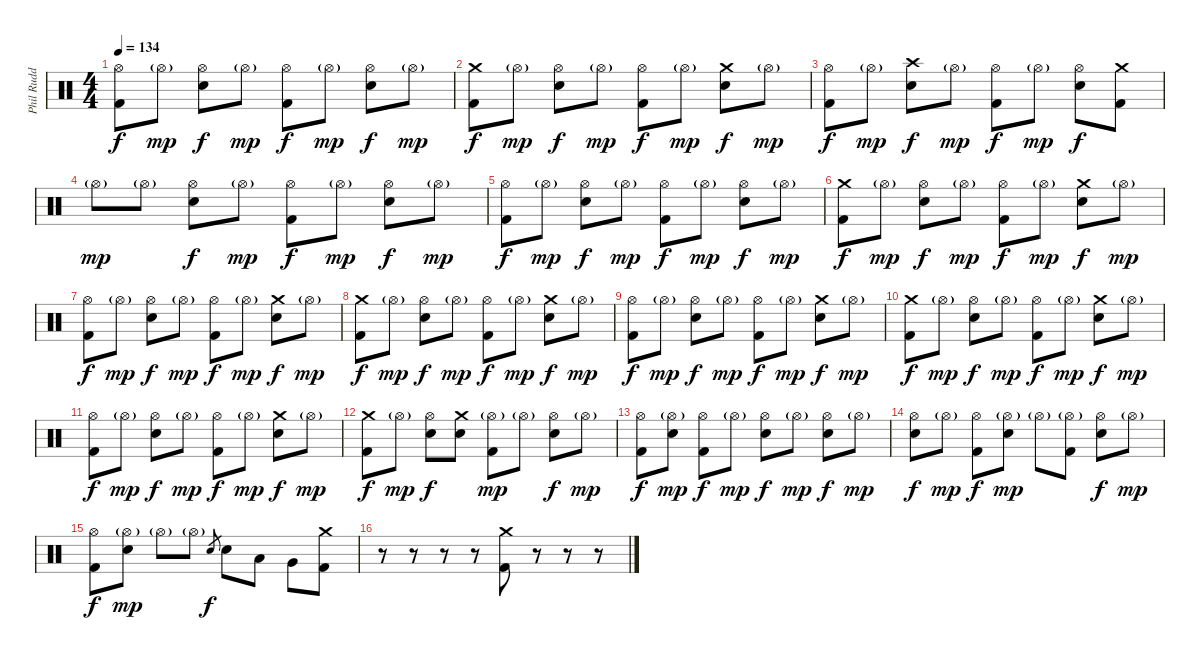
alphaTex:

\track ("Phil Rudd" "Phil Rudd") {instrument percussion}
\staff {score}
\articulation defaults
\ts (4 4)
\tempo 134
\clef neutral
\ks c
("Hi-Hat (open)" "Kick (hit) 2").8{dy f} "Hi-Hat (open)"{g}.8{dy mp} ("Hi-Hat (open)" "Snare (hit) 2").8{dy f} "Hi-Hat (open)"{g}.8{dy mp} ("Hi-Hat (open)" "Kick (hit) 2").8{dy f} "Hi-Hat (open)"{g}.8{dy mp} ("Hi-Hat (open)" "Snare (hit) 2").8{dy f} "Hi-Hat (open)"{g}.8{dy mp} |
("Crash medium (hit)" "Kick (hit) 2").8{dy f} "Hi-Hat (open)"{g}.8{dy mp} ("Hi-Hat (open)" "Snare (hit) 2").8{dy f} "Hi-Hat (open)"{g}.8{dy mp} ("Hi-Hat (open)" "Kick (hit) 2").8{dy f} "Hi-Hat (open)"{g}.8{dy mp} ("Crash medium (hit)" "Snare (hit) 2").8{dy f} "Hi-Hat (open)"{g}.8{dy mp} |
("Hi-Hat (open)" "Kick (hit) 2").8{dy f} "Hi-Hat (open)"{g}.8{dy mp} ("Crash high (hit)" "Snare (hit) 2").8{dy f} "Hi-Hat (open)"{g}.8{dy mp} ("Hi-Hat (open)" "Kick (hit) 2").8{dy f} "Hi-Hat (open)"{g}.8{dy mp} ("Hi-Hat (open)" "Snare (hit) 2").8{dy f} ("Crash medium (hit)" "Kick (hit) 2").8 |
"Hi-Hat (open)"{g}.8{dy mp} "Hi-Hat (open)"{g}.8 ("Hi-Hat (open)" "Snare (hit) 2").8{dy f} "Hi-Hat (open)"{g}.8{dy mp} ("Hi-Hat (open)" "Kick (hit) 2").8{dy f} "Hi-Hat (open)"{g}.8{dy mp} ("Hi-Hat (open)" "Snare (hit) 2").8{dy f} "Hi-Hat (open)"{g}.8{dy mp} |
("Hi-Hat (open)" "Kick (hit) 2").8{dy f} "Hi-Hat (open)"{g}.8{dy mp} ("Hi-Hat (open)" "Snare (hit) 2").8{dy f} "Hi-Hat (open)"{g}.8{dy mp} ("Hi-Hat (open)" "Kick (hit) 2").8{dy f} "Hi-Hat (open)"{g}.8{dy mp} ("Hi-Hat (open)" "Snare (hit) 2").8{dy f} "Hi-Hat (open)"{g}.8{dy mp} |
("Crash medium (hit)" "Kick (hit) 2").8{dy f} "Hi-Hat (open)"{g}.8{dy mp} ("Hi-Hat (open)" "Snare (hit) 2").8{dy f} "Hi-Hat (open)"{g}.8{dy mp} ("Hi-Hat (open)" "Kick (hit) 2").8{dy f} "Hi-Hat (open)"{g}.8{dy mp} ("Crash medium (hit)" "Snare (hit) 2").8{dy f} "Hi-Hat (open)"{g}.8{dy mp} |
("Hi-Hat (open)" "Kick (hit) 2").8{dy f} "Hi-Hat (open)"{g}.8{dy mp} ("Hi-Hat (open)" "Snare (hit) 2").8{dy f} "Hi-Hat (open)"{g}.8{dy mp} ("Hi-Hat (open)" "Kick (hit) 2").8{dy f} "Hi-Hat (open)"{g}.8{dy mp} ("Crash medium (hit)" "Snare (hit) 2").8{dy f} "Hi-Hat (open)"{g}.8{dy mp} |
("Crash medium (hit)" "Kick (hit) 2").8{dy f} "Hi-Hat (open)"{g}.8{dy mp} ("Hi-Hat (open)" "Snare (hit) 2").8{dy f} "Hi-Hat (open)"{g}.8{dy mp} ("Hi-Hat (open)" "Kick (hit) 2").8{dy f} "Hi-Hat (open)"{g}.8{dy mp} ("Crash medium (hit)" "Snare (hit) 2").8{dy f} "Hi-Hat (open)"{g}.8{dy mp} |
("Hi-Hat (open)" "Kick (hit) 2").8{dy f} "Hi-Hat (open)"{g}.8{dy mp} ("Hi-Hat (open)" "Snare (hit) 2").8{dy f} "Hi-Hat (open)"{g}.8{dy mp} ("Hi-Hat (open)" "Kick (hit) 2").8{dy f} "Hi-Hat (open)"{g}.8{dy mp} ("Crash medium (hit)" "Snare (hit) 2").8{dy f} "Hi-Hat (open)"{g}.8{dy mp} |
("Crash medium (hit)" "Kick (hit) 2").8{dy f} "Hi-Hat (open)"{g}.8{dy mp} ("Hi-Hat (open)" "Snare (hit) 2").8{dy f} "Hi-Hat (open)"{g}.8{dy mp} ("Hi-Hat (open)" "Kick (hit) 2").8{dy f} "Hi-Hat (open)"{g}.8{dy mp} ("Crash medium (hit)" "Snare (hit) 2").8{dy f} "Hi-Hat (open)"{g}.8{dy mp} |
("Hi-Hat (open)" "Kick (hit) 2").8{dy f} "Hi-Hat (open)"{g}.8{dy mp} ("Hi-Hat (open)" "Snare (hit) 2").8{dy f} "Hi-Hat (open)"{g}.8{dy mp} ("Hi-Hat (open)" "Kick (hit) 2").8{dy f} "Hi-Hat (open)"{g}.8{dy mp} ("Crash medium (hit)" "Snare (hit) 2").8{dy f} "Hi-Hat (open)"{g}.8{dy mp} |
("Crash medium (hit)" "Kick (hit) 2").8{dy f} "Hi-Hat (open)"{g}.8{dy mp} ("Hi-Hat (open)" "Snare (hit) 2").8{dy f} ("Crash medium (hit)" "Snare (hit) 2").8 ("Hi-Hat (open)"{g} "Kick (hit) 2").8{dy mp} "Hi-Hat (open)"{g}.8 ("Hi-Hat (open)" "Snare (hit) 2").8{dy f} "Hi-Hat (open)"{g}.8{dy mp} |
("Hi-Hat (open)" "Kick (hit) 2").8{dy f} ("Hi-Hat (open)"{g} "Snare (hit) 2").8{dy mp} ("Hi-Hat (open)" "Kick (hit) 2").8{dy f} "Hi-Hat (open)"{g}.8{dy mp} ("Hi-Hat (open)" "Snare (hit) 2").8{dy f} "Hi-Hat (open)"{g}.8{dy mp} ("Hi-Hat (open)" "Snare (hit) 2").8{dy f} "Hi-Hat (open)"{g}.8{dy mp} |
("Hi-Hat (open)" "Snare (hit) 2").8{dy f} "Hi-Hat (open)"{g}.8{dy mp} ("Hi-Hat (open)" "Kick (hit) 2").8{dy f} ("Hi-Hat (open)"{g} "Snare (hit) 2").8{dy mp} "Hi-Hat (open)"{g}.8 ("Hi-Hat (open)"{g} "Kick (hit) 2").8 ("Hi-Hat (open)" "Snare (hit) 2").8{dy f} "Hi-Hat (open)"{g}.8{dy mp} |
("Hi-Hat (open)" "Kick (hit) 2").8{dy f} ("Hi-Hat (open)"{g} "Snare (hit) 2").8{dy mp} "Hi-Hat (open)"{g}.8 "Hi-Hat (open)"{g}.8 "Electric Snare (hit)".8{gr dy f} "Electric Snare (hit)".8 "Low Tom (hit)".8 "Very Low Tom (hit)".8 ("Crash medium (hit)" "Kick (hit) 2").8 |
r.8 r.8 r.8 r.8 ("Crash medium (hit)" "Kick (hit) 2").8 r.8 r.8 r.8
